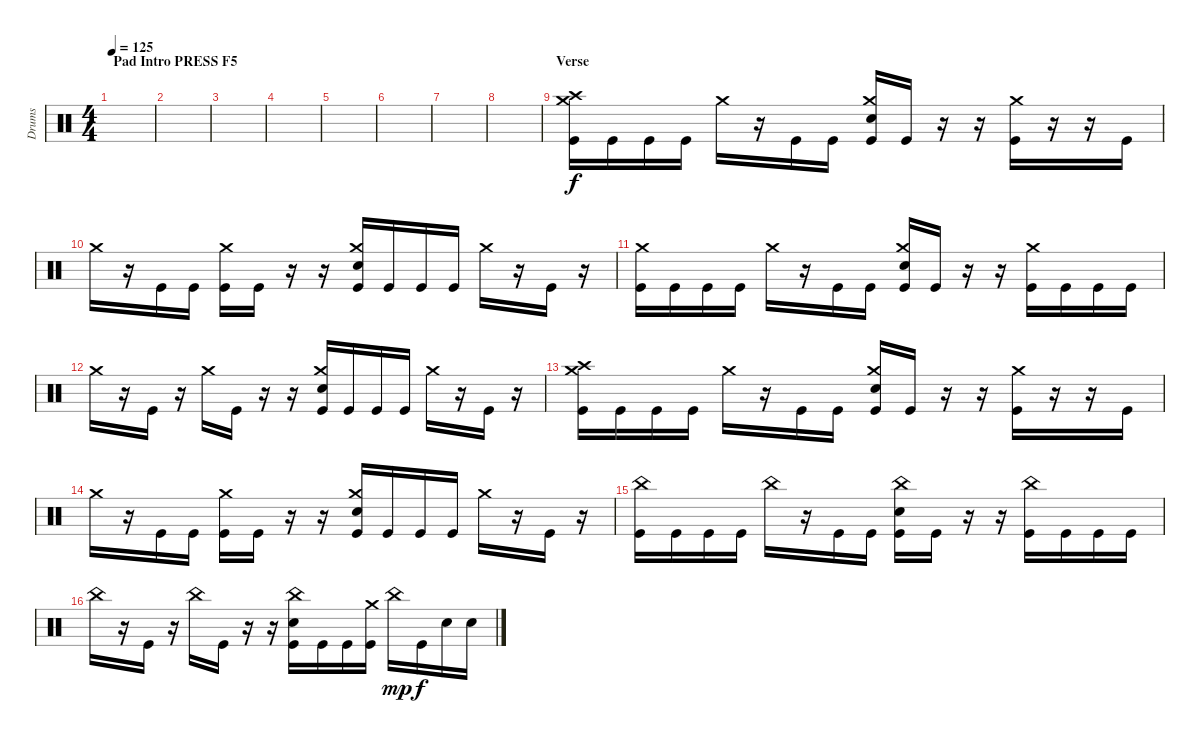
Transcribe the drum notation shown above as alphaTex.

\track ("Drums" "Drums") {instrument percussion}
\staff {score}
\articulation defaults
\ts (4 4)
\section ("" "Pad Intro PRESS F5")
\tempo 125
\clef neutral
\ks c
|
|
|
|
|
|
|
|
\section ("" "Verse")
("Kick (hit)" "Crash medium (hit)" "Crash high (hit)").16 "Kick (hit)".16 "Kick (hit)".16 "Kick (hit)".16 "Crash medium (hit)".16 r.16 "Kick (hit)".16 "Kick (hit)".16 ("Kick (hit)" "Crash medium (hit)" "Snare (hit) 2").16 "Kick (hit)".16 r.16 r.16 ("Kick (hit)" "Crash medium (hit)").16 r.16 r.16 "Kick (hit)".16 |
"Crash medium (hit)".16 r.16 "Kick (hit)".16 "Kick (hit)".16 ("Kick (hit)" "Crash medium (hit)").16 "Kick (hit)".16 r.16 r.16 ("Kick (hit)" "Crash medium (hit)" "Snare (hit) 2").16 "Kick (hit)".16 "Kick (hit)".16 "Kick (hit)".16 "Crash medium (hit)".16 r.16 "Kick (hit)".16 r.16 |
("Kick (hit)" "Crash medium (hit)").16 "Kick (hit)".16 "Kick (hit)".16 "Kick (hit)".16 "Crash medium (hit)".16 r.16 "Kick (hit)".16 "Kick (hit)".16 ("Kick (hit)" "Crash medium (hit)" "Snare (hit) 2").16 "Kick (hit)".16 r.16 r.16 ("Kick (hit)" "Crash medium (hit)").16 "Kick (hit)".16 "Kick (hit)".16 "Kick (hit)".16 |
"Crash medium (hit)".16 r.16 "Kick (hit)".16 r.16 "Crash medium (hit)".16 "Kick (hit)".16 r.16 r.16 ("Kick (hit)" "Crash medium (hit)" "Snare (hit) 2").16 "Kick (hit)".16 "Kick (hit)".16 "Kick (hit)".16 "Crash medium (hit)".16 r.16 "Kick (hit)".16 r.16 |
("Kick (hit)" "Crash medium (hit)" "Crash high (hit)").16 "Kick (hit)".16 "Kick (hit)".16 "Kick (hit)".16 "Crash medium (hit)".16 r.16 "Kick (hit)".16 "Kick (hit)".16 ("Kick (hit)" "Crash medium (hit)" "Snare (hit) 2").16 "Kick (hit)".16 r.16 r.16 ("Kick (hit)" "Crash medium (hit)").16 r.16 r.16 "Kick (hit)".16 |
"Crash medium (hit)".16 r.16 "Kick (hit)".16 "Kick (hit)".16 ("Kick (hit)" "Crash medium (hit)").16 "Kick (hit)".16 r.16 r.16 ("Kick (hit)" "Crash medium (hit)" "Snare (hit) 2").16 "Kick (hit)".16 "Kick (hit)".16 "Kick (hit)".16 "Crash medium (hit)".16 r.16 "Kick (hit)".16 r.16 |
("Kick (hit)" "China (hit)").16 "Kick (hit)".16 "Kick (hit)".16 "Kick (hit)".16 "China (hit)".16 r.16 "Kick (hit)".16 "Kick (hit)".16 ("Kick (hit)" "Snare (hit) 2" "China (hit)").16 "Kick (hit)".16 r.16 r.16 ("Kick (hit)" "China (hit)").16 "Kick (hit)".16 "Kick (hit)".16 "Kick (hit)".16 |
"China (hit)".16 r.16 "Kick (hit)".16 r.16 "China (hit)".16 "Kick (hit)".16 r.16 r.16 ("Kick (hit)" "Snare (hit) 2" "China (hit)").16 "Kick (hit)".16 "Kick (hit)".16 ("Kick (hit)" "Crash medium (hit)").16 "China (hit)".16{dy mp} "Kick (hit)".16{dy f} "Snare (hit) 2".16 "Snare (hit) 2".16
